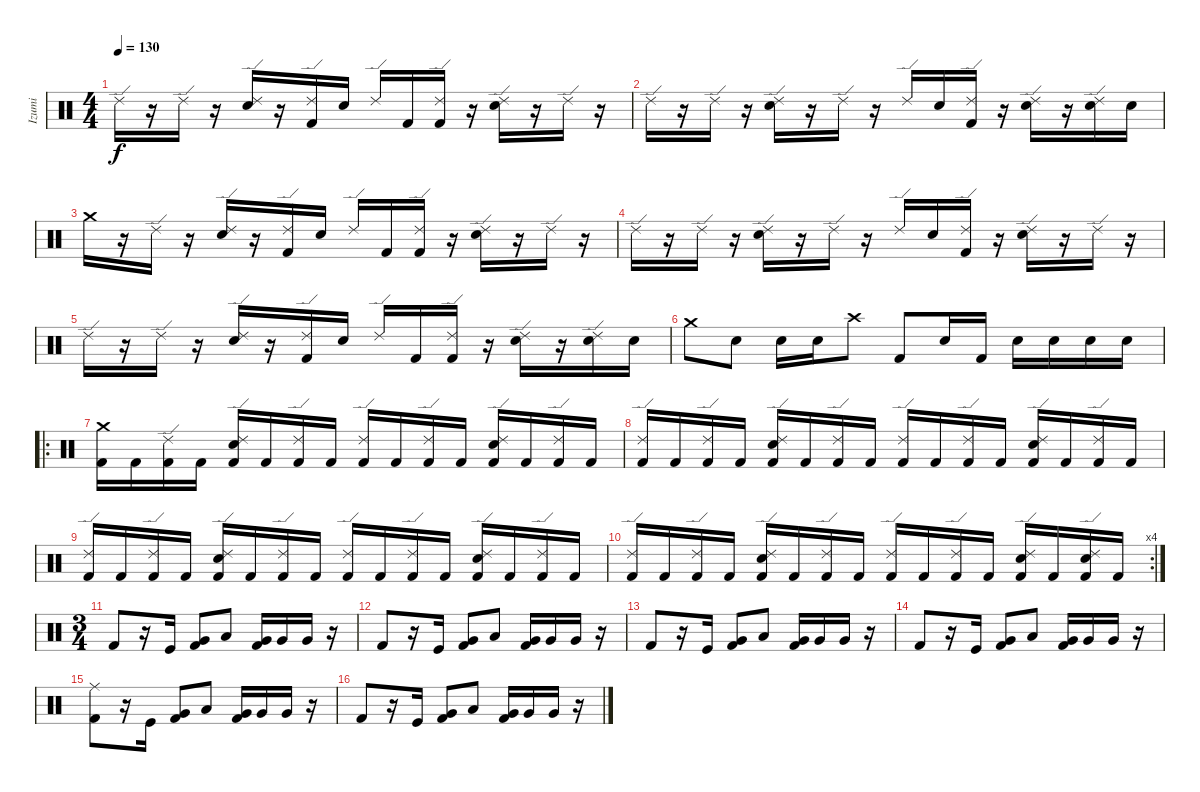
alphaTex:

\track ("Izumi" "Izumi") {instrument percussion}
\staff {score}
\articulation defaults
\ts (4 4)
\tempo 130
\clef neutral
\ks c "Ride (edge) 2".16{dy f}
r.16 "Ride (edge) 2".16 r.16 ("Snare (hit) 2" "Ride (edge) 2").16 r.16 ("Kick (hit) 2" "Ride (edge) 2").16 "Snare (hit) 2".16 "Ride (edge) 2".16 "Kick (hit) 2".16 ("Kick (hit) 2" "Ride (edge) 2").16 r.16 ("Snare (hit) 2" "Ride (edge) 2").16 r.16 "Ride (edge) 2".16 r.16 |
"Ride (edge) 2".16 r.16 "Ride (edge) 2".16 r.16 ("Snare (hit) 2" "Ride (edge) 2").16 r.16 "Ride (edge) 2".16 r.16 "Ride (edge) 2".16 "Snare (hit) 2".16 ("Kick (hit) 2" "Ride (edge) 2").16 r.16 ("Snare (hit) 2" "Ride (edge) 2").16 r.16 ("Snare (hit) 2" "Ride (edge) 2").16 "Snare (hit) 2".16 |
"Crash medium (hit)".16 r.16 "Ride (edge) 2".16 r.16 ("Snare (hit) 2" "Ride (edge) 2").16 r.16 ("Kick (hit) 2" "Ride (edge) 2").16 "Snare (hit) 2".16 "Ride (edge) 2".16 "Kick (hit) 2".16 ("Kick (hit) 2" "Ride (edge) 2").16 r.16 ("Snare (hit) 2" "Ride (edge) 2").16 r.16 "Ride (edge) 2".16 r.16 |
"Ride (edge) 2".16 r.16 "Ride (edge) 2".16 r.16 ("Snare (hit) 2" "Ride (edge) 2").16 r.16 "Ride (edge) 2".16 r.16 "Ride (edge) 2".16 "Snare (hit) 2".16 ("Kick (hit) 2" "Ride (edge) 2").16 r.16 ("Snare (hit) 2" "Ride (edge) 2").16 r.16 "Ride (edge) 2".16 r.16 |
"Ride (edge) 2".16 r.16 "Ride (edge) 2".16 r.16 ("Snare (hit) 2" "Ride (edge) 2").16 r.16 ("Kick (hit) 2" "Ride (edge) 2").16 "Snare (hit) 2".16 "Ride (edge) 2".16 "Kick (hit) 2".16 ("Kick (hit) 2" "Ride (edge) 2").16 r.16 ("Snare (hit) 2" "Ride (edge) 2").16 r.16 ("Snare (hit) 2" "Ride (edge) 2").16 "Snare (hit) 2".16 |
"Crash medium (hit)".8 "Snare (hit) 2".8 "Snare (hit) 2".16 "Snare (hit) 2".16 "Crash high (hit)".8 "Kick (hit) 2".8 "Snare (hit) 2".16 "Kick (hit) 2".16 "Snare (hit) 2".16 "Snare (hit) 2".16 "Snare (hit) 2".16 "Snare (hit) 2".16 |
\ro
("Kick (hit) 2" "Crash medium (hit)").16 "Kick (hit) 2".16 ("Kick (hit) 2" "Ride (edge) 2").16 "Kick (hit) 2".16 ("Kick (hit) 2" "Snare (hit) 2" "Ride (edge) 2").16 "Kick (hit) 2".16 ("Kick (hit) 2" "Ride (edge) 2").16 "Kick (hit) 2".16 ("Kick (hit) 2" "Ride (edge) 2").16 "Kick (hit) 2".16 ("Kick (hit) 2" "Ride (edge) 2").16 "Kick (hit) 2".16 ("Kick (hit) 2" "Snare (hit) 2" "Ride (edge) 2").16 "Kick (hit) 2".16 ("Kick (hit) 2" "Ride (edge) 2").16 "Kick (hit) 2".16 |
("Kick (hit) 2" "Ride (edge) 2").16 "Kick (hit) 2".16 ("Kick (hit) 2" "Ride (edge) 2").16 "Kick (hit) 2".16 ("Kick (hit) 2" "Snare (hit) 2" "Ride (edge) 2").16 "Kick (hit) 2".16 ("Kick (hit) 2" "Ride (edge) 2").16 "Kick (hit) 2".16 ("Kick (hit) 2" "Ride (edge) 2").16 "Kick (hit) 2".16 ("Kick (hit) 2" "Ride (edge) 2").16 "Kick (hit) 2".16 ("Kick (hit) 2" "Snare (hit) 2" "Ride (edge) 2").16 "Kick (hit) 2".16 ("Kick (hit) 2" "Ride (edge) 2").16 "Kick (hit) 2".16 |
("Kick (hit) 2" "Ride (edge) 2").16 "Kick (hit) 2".16 ("Kick (hit) 2" "Ride (edge) 2").16 "Kick (hit) 2".16 ("Kick (hit) 2" "Snare (hit) 2" "Ride (edge) 2").16 "Kick (hit) 2".16 ("Kick (hit) 2" "Ride (edge) 2").16 "Kick (hit) 2".16 ("Kick (hit) 2" "Ride (edge) 2").16 "Kick (hit) 2".16 ("Kick (hit) 2" "Ride (edge) 2").16 "Kick (hit) 2".16 ("Kick (hit) 2" "Snare (hit) 2" "Ride (edge) 2").16 "Kick (hit) 2".16 ("Kick (hit) 2" "Ride (edge) 2").16 "Kick (hit) 2".16 |
\rc 4
("Kick (hit) 2" "Ride (edge) 2").16 "Kick (hit) 2".16 ("Kick (hit) 2" "Ride (edge) 2").16 "Kick (hit) 2".16 ("Kick (hit) 2" "Snare (hit) 2" "Ride (edge) 2").16 "Kick (hit) 2".16 ("Kick (hit) 2" "Ride (edge) 2").16 "Kick (hit) 2".16 ("Kick (hit) 2" "Ride (edge) 2").16 "Kick (hit) 2".16 ("Kick (hit) 2" "Ride (edge) 2").16 "Kick (hit) 2".16 ("Kick (hit) 2" "Snare (hit) 2" "Ride (edge) 2").16 "Kick (hit) 2".16 ("Kick (hit) 2" "Snare (hit) 2" "Ride (edge) 2").16 "Kick (hit) 2".16 |
\ts (3 4)
"Kick (hit) 2".8 r.16 "Kick (hit)".16 ("Kick (hit) 2" "Very Low Tom (hit)").8 "Low Tom (hit)".8 ("Kick (hit) 2" "Very Low Tom (hit)").16 "Very Low Tom (hit)".16 "Very Low Tom (hit)".16 r.16 |
"Kick (hit) 2".8 r.16 "Kick (hit)".16 ("Kick (hit) 2" "Very Low Tom (hit)").8 "Low Tom (hit)".8 ("Kick (hit) 2" "Very Low Tom (hit)").16 "Very Low Tom (hit)".16 "Very Low Tom (hit)".16 r.16 |
"Kick (hit) 2".8 r.16 "Kick (hit)".16 ("Kick (hit) 2" "Very Low Tom (hit)").8 "Low Tom (hit)".8 ("Kick (hit) 2" "Very Low Tom (hit)").16 "Very Low Tom (hit)".16 "Very Low Tom (hit)".16 r.16 |
"Kick (hit) 2".8 r.16 "Kick (hit)".16 ("Kick (hit) 2" "Very Low Tom (hit)").8 "Low Tom (hit)".8 ("Kick (hit) 2" "Very Low Tom (hit)").16 "Very Low Tom (hit)".16 "Very Low Tom (hit)".16 r.16 |
("Kick (hit) 2" "Ride (middle)").8 r.16 "Kick (hit)".16 ("Kick (hit) 2" "Very Low Tom (hit)").8 "Low Tom (hit)".8 ("Kick (hit) 2" "Very Low Tom (hit)").16 "Very Low Tom (hit)".16 "Very Low Tom (hit)".16 r.16 |
"Kick (hit) 2".8 r.16 "Kick (hit)".16 ("Kick (hit) 2" "Very Low Tom (hit)").8 "Low Tom (hit)".8 ("Kick (hit) 2" "Very Low Tom (hit)").16 "Very Low Tom (hit)".16 "Very Low Tom (hit)".16 r.16
